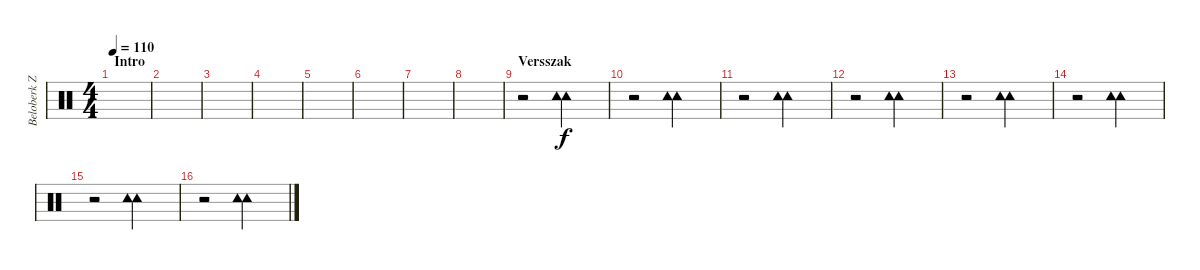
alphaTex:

\track ("Beloberk Zsolt" "Beloberk Z") {instrument percussion}
\staff {score}
\articulation defaults
\ts (4 4)
\section ("" "Intro")
\tempo 110
\clef neutral
\ks c
|
|
|
|
|
|
|
|
\section ("" "Versszak")
r.2 ("Tambourine (hit)" "Tambourine (hit)").2 |
r.2 ("Tambourine (hit)" "Tambourine (hit)").2 |
r.2 ("Tambourine (hit)" "Tambourine (hit)").2 |
r.2 ("Tambourine (hit)" "Tambourine (hit)").2 |
r.2 ("Tambourine (hit)" "Tambourine (hit)").2 |
r.2 ("Tambourine (hit)" "Tambourine (hit)").2 |
r.2 ("Tambourine (hit)" "Tambourine (hit)").2 |
r.2 ("Tambourine (hit)" "Tambourine (hit)").2
